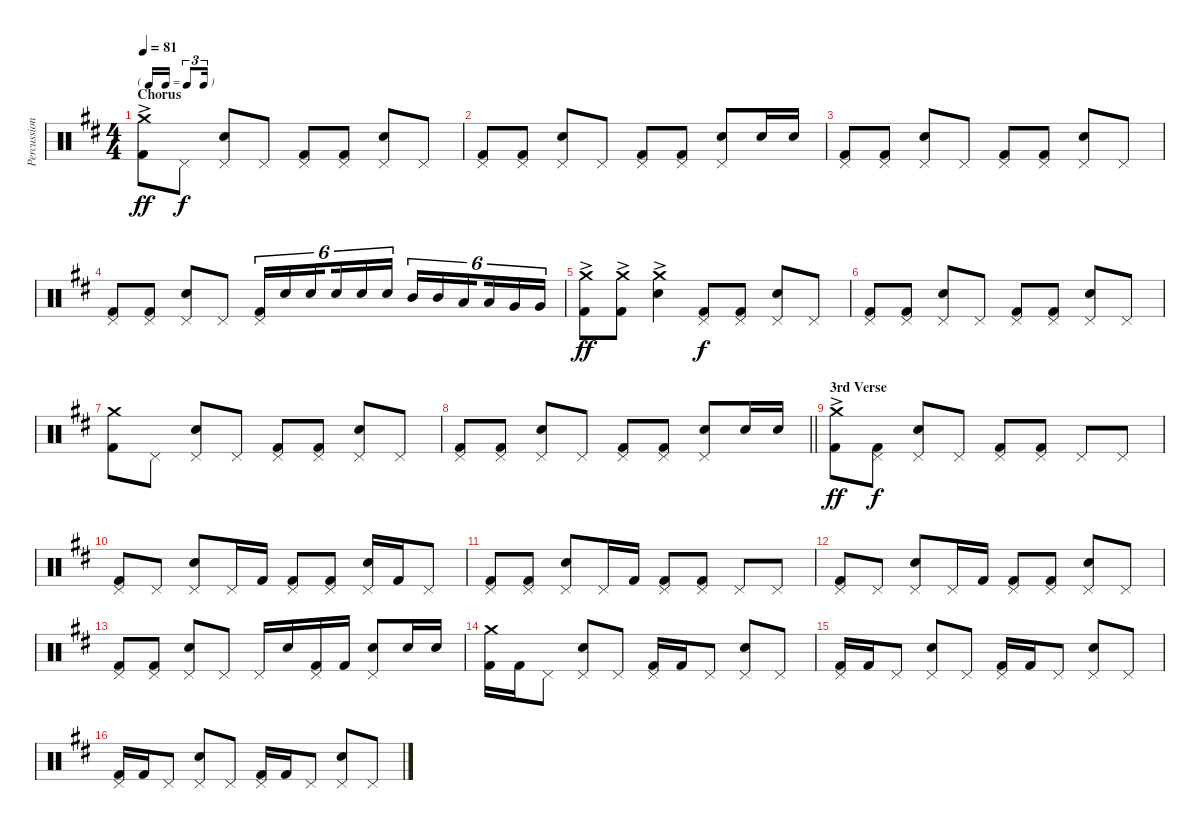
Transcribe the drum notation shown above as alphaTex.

\track ("Percussion" "Percussion") {instrument percussion}
\staff {score}
\articulation defaults
\ts (4 4)
\tf triplet16th
\section ("" "Chorus")
\tempo 81
\clef neutral
\ks d
("Crash medium (hit)"{ac} "Kick (hit) 2").8{dy ff} "Pedal Hi-Hat (hit)".8{dy f} ("Pedal Hi-Hat (hit)" "Snare (hit) 2").8 "Pedal Hi-Hat (hit)".8 ("Pedal Hi-Hat (hit)" "Kick (hit) 2").8 ("Pedal Hi-Hat (hit)" "Kick (hit) 2").8 ("Pedal Hi-Hat (hit)" "Snare (hit) 2").8 "Pedal Hi-Hat (hit)".8 |
("Pedal Hi-Hat (hit)" "Kick (hit) 2").8 ("Pedal Hi-Hat (hit)" "Kick (hit) 2").8 ("Pedal Hi-Hat (hit)" "Snare (hit) 2").8 "Pedal Hi-Hat (hit)".8 ("Pedal Hi-Hat (hit)" "Kick (hit) 2").8 ("Pedal Hi-Hat (hit)" "Kick (hit) 2").8 ("Pedal Hi-Hat (hit)" "Snare (hit) 2").8 "Snare (hit) 2".16 "Snare (hit) 2".16 |
("Pedal Hi-Hat (hit)" "Kick (hit) 2").8 ("Pedal Hi-Hat (hit)" "Kick (hit) 2").8 ("Pedal Hi-Hat (hit)" "Snare (hit) 2").8 "Pedal Hi-Hat (hit)".8 ("Pedal Hi-Hat (hit)" "Kick (hit) 2").8 ("Pedal Hi-Hat (hit)" "Kick (hit) 2").8 ("Pedal Hi-Hat (hit)" "Snare (hit) 2").8 "Pedal Hi-Hat (hit)".8 |
("Pedal Hi-Hat (hit)" "Kick (hit) 2").8 ("Pedal Hi-Hat (hit)" "Kick (hit) 2").8 ("Pedal Hi-Hat (hit)" "Snare (hit) 2").8 "Pedal Hi-Hat (hit)".8 ("Pedal Hi-Hat (hit)" "Kick (hit) 2").16{tu (6 4)} "Snare (hit) 2".16{tu (6 4)} "Snare (hit) 2".16{tu (6 4) beam splitsecondary} "Snare (hit) 2".16{tu (6 4)} "Snare (hit) 2".16{tu (6 4)} "Snare (hit) 2".16{tu (6 4)} "Mid Tom (hit)".16{tu (6 4)} "Mid Tom (hit)".16{tu (6 4)} "Low Tom (hit)".16{tu (6 4) beam splitsecondary} "Low Tom (hit)".16{tu (6 4)} "Very Low Tom (hit)".16{tu (6 4)} "Very Low Tom (hit)".16{tu (6 4)} |
("Crash medium (hit)"{ac} "Kick (hit) 2").8{dy ff} ("Crash medium (hit)"{ac} "Kick (hit) 2").8 ("Crash medium (hit)"{ac} "Snare (hit) 2").4 ("Pedal Hi-Hat (hit)" "Kick (hit) 2").8{dy f} ("Pedal Hi-Hat (hit)" "Kick (hit) 2").8 ("Pedal Hi-Hat (hit)" "Snare (hit) 2").8 "Pedal Hi-Hat (hit)".8 |
("Pedal Hi-Hat (hit)" "Kick (hit) 2").8 ("Pedal Hi-Hat (hit)" "Kick (hit) 2").8 ("Pedal Hi-Hat (hit)" "Snare (hit) 2").8 "Pedal Hi-Hat (hit)".8 ("Pedal Hi-Hat (hit)" "Kick (hit) 2").8 ("Pedal Hi-Hat (hit)" "Kick (hit) 2").8 ("Pedal Hi-Hat (hit)" "Snare (hit) 2").8 "Pedal Hi-Hat (hit)".8 |
("Crash medium (hit)" "Kick (hit) 2").8 "Pedal Hi-Hat (hit)".8 ("Pedal Hi-Hat (hit)" "Snare (hit) 2").8 "Pedal Hi-Hat (hit)".8 ("Pedal Hi-Hat (hit)" "Kick (hit) 2").8 ("Pedal Hi-Hat (hit)" "Kick (hit) 2").8 ("Pedal Hi-Hat (hit)" "Snare (hit) 2").8 "Pedal Hi-Hat (hit)".8 |
\barLineRight lightlight
("Pedal Hi-Hat (hit)" "Kick (hit) 2").8 ("Pedal Hi-Hat (hit)" "Kick (hit) 2").8 ("Pedal Hi-Hat (hit)" "Snare (hit) 2").8 "Pedal Hi-Hat (hit)".8 ("Pedal Hi-Hat (hit)" "Kick (hit) 2").8 ("Pedal Hi-Hat (hit)" "Kick (hit) 2").8 ("Pedal Hi-Hat (hit)" "Snare (hit) 2").8 "Snare (hit) 2".16 "Snare (hit) 2".16 |
\section ("" "3rd Verse")
("Crash medium (hit)"{ac} "Kick (hit) 2").8{dy ff} ("Pedal Hi-Hat (hit)" "Kick (hit) 2").8{dy f} ("Pedal Hi-Hat (hit)" "Snare (hit) 2").8 "Pedal Hi-Hat (hit)".8 ("Pedal Hi-Hat (hit)" "Kick (hit) 2").8 ("Pedal Hi-Hat (hit)" "Kick (hit) 2").8 "Pedal Hi-Hat (hit)".8 "Pedal Hi-Hat (hit)".8 |
("Pedal Hi-Hat (hit)" "Kick (hit) 2").8 "Pedal Hi-Hat (hit)".8 ("Pedal Hi-Hat (hit)" "Snare (hit) 2").8 "Pedal Hi-Hat (hit)".16 "Kick (hit) 2".16 ("Pedal Hi-Hat (hit)" "Kick (hit) 2").8 ("Pedal Hi-Hat (hit)" "Kick (hit) 2").8 ("Pedal Hi-Hat (hit)" "Snare (hit) 2").16 "Kick (hit) 2".16 "Pedal Hi-Hat (hit)".8 |
("Pedal Hi-Hat (hit)" "Kick (hit) 2").8 ("Pedal Hi-Hat (hit)" "Kick (hit) 2").8 ("Pedal Hi-Hat (hit)" "Snare (hit) 2").8 "Pedal Hi-Hat (hit)".16 "Kick (hit) 2".16 ("Pedal Hi-Hat (hit)" "Kick (hit) 2").8 ("Pedal Hi-Hat (hit)" "Kick (hit) 2").8 "Pedal Hi-Hat (hit)".8 "Pedal Hi-Hat (hit)".8 |
("Pedal Hi-Hat (hit)" "Kick (hit) 2").8 "Pedal Hi-Hat (hit)".8 ("Pedal Hi-Hat (hit)" "Snare (hit) 2").8 "Pedal Hi-Hat (hit)".16 "Kick (hit) 2".16 ("Pedal Hi-Hat (hit)" "Kick (hit) 2").8 ("Pedal Hi-Hat (hit)" "Kick (hit) 2").8 ("Pedal Hi-Hat (hit)" "Snare (hit) 2").8 "Pedal Hi-Hat (hit)".8 |
("Pedal Hi-Hat (hit)" "Kick (hit) 2").8 ("Pedal Hi-Hat (hit)" "Kick (hit) 2").8 ("Pedal Hi-Hat (hit)" "Snare (hit) 2").8 "Pedal Hi-Hat (hit)".8 "Pedal Hi-Hat (hit)".16 "Snare (hit) 2".16 ("Pedal Hi-Hat (hit)" "Kick (hit) 2").16 "Kick (hit) 2".16 ("Pedal Hi-Hat (hit)" "Snare (hit) 2").8 "Snare (hit) 2".16 "Snare (hit) 2".16 |
("Crash medium (hit)" "Kick (hit) 2").16 "Kick (hit) 2".16 "Pedal Hi-Hat (hit)".8 ("Pedal Hi-Hat (hit)" "Snare (hit) 2").8 "Pedal Hi-Hat (hit)".8 ("Pedal Hi-Hat (hit)" "Kick (hit) 2").16 "Kick (hit) 2".16 "Pedal Hi-Hat (hit)".8 ("Pedal Hi-Hat (hit)" "Snare (hit) 2").8 "Pedal Hi-Hat (hit)".8 |
("Pedal Hi-Hat (hit)" "Kick (hit) 2").16 "Kick (hit) 2".16 "Pedal Hi-Hat (hit)".8 ("Pedal Hi-Hat (hit)" "Snare (hit) 2").8 "Pedal Hi-Hat (hit)".8 ("Pedal Hi-Hat (hit)" "Kick (hit) 2").16 "Kick (hit) 2".16 "Pedal Hi-Hat (hit)".8 ("Pedal Hi-Hat (hit)" "Snare (hit) 2").8 "Pedal Hi-Hat (hit)".8 |
("Pedal Hi-Hat (hit)" "Kick (hit) 2").16 "Kick (hit) 2".16 "Pedal Hi-Hat (hit)".8 ("Pedal Hi-Hat (hit)" "Snare (hit) 2").8 "Pedal Hi-Hat (hit)".8 ("Pedal Hi-Hat (hit)" "Kick (hit) 2").16 "Kick (hit) 2".16 "Pedal Hi-Hat (hit)".8 ("Pedal Hi-Hat (hit)" "Snare (hit) 2").8 "Pedal Hi-Hat (hit)".8
